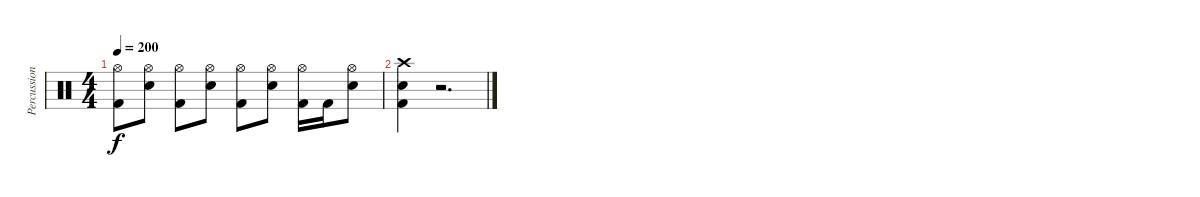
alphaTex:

\track ("Percussion" "Percussion") {instrument percussion}
\staff {score}
\articulation defaults
\ts (4 4)
\tempo 200
\clef neutral
\ks c
("Hi-Hat (open)" "Kick (hit) 2").8{dy f} ("Hi-Hat (open)" "Snare (hit) 2").8 ("Hi-Hat (open)" "Kick (hit) 2").8 ("Hi-Hat (open)" "Snare (hit) 2").8 ("Hi-Hat (open)" "Kick (hit) 2").8 ("Hi-Hat (open)" "Snare (hit) 2").8 ("Hi-Hat (open)" "Kick (hit) 2").16 "Kick (hit) 2".16 ("Hi-Hat (open)" "Snare (hit) 2").8 |
("Crash high (hit)" "Snare (hit) 2" "Kick (hit) 2").4 r.2{d}
